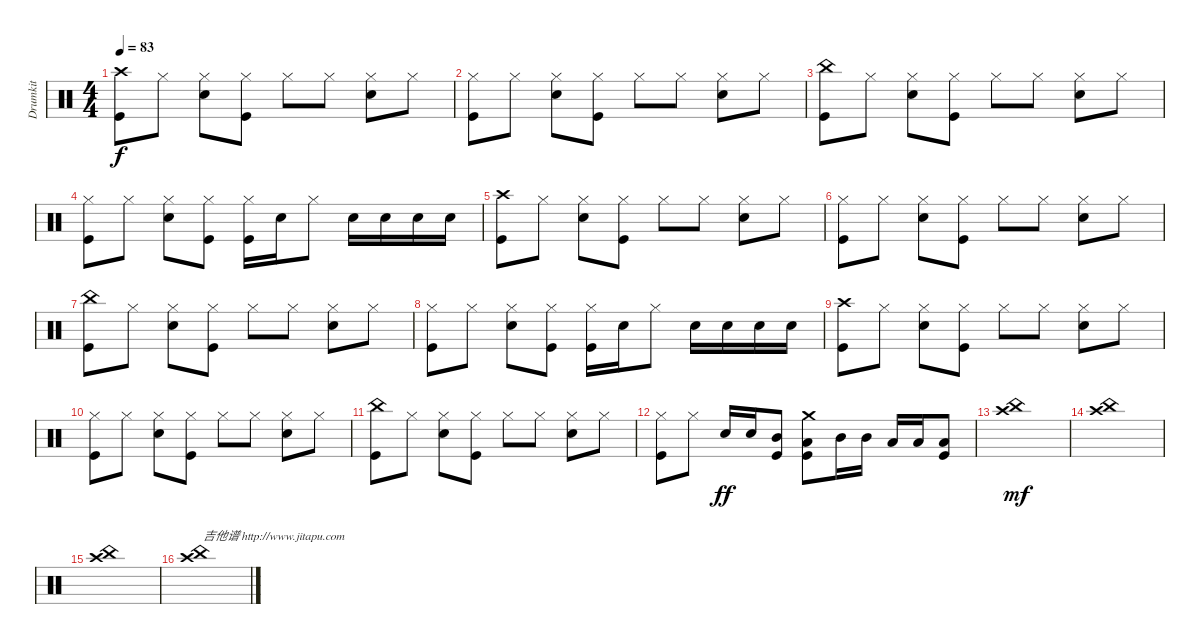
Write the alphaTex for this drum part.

\track ("Drumkit" "Drumkit") {instrument percussion}
\staff {score}
\articulation defaults
\ts (4 4)
\tempo 83
\clef neutral
\ks c
("Kick (hit)" "Crash high (hit)").8{dy f} "Hi-Hat (closed)".8 ("Snare (hit) 2" "Hi-Hat (closed)").8 ("Hi-Hat (closed)" "Kick (hit)").8 "Hi-Hat (closed)".8 "Hi-Hat (closed)".8 ("Snare (hit) 2" "Hi-Hat (closed)").8 "Hi-Hat (closed)".8 |
("Kick (hit)" "Hi-Hat (closed)").8 "Hi-Hat (closed)".8 ("Snare (hit) 2" "Hi-Hat (closed)").8 ("Hi-Hat (closed)" "Kick (hit)").8 "Hi-Hat (closed)".8 "Hi-Hat (closed)".8 ("Snare (hit) 2" "Hi-Hat (closed)").8 "Hi-Hat (closed)".8 |
("Kick (hit)" "China (hit)").8 "Hi-Hat (closed)".8 ("Snare (hit) 2" "Hi-Hat (closed)").8 ("Hi-Hat (closed)" "Kick (hit)").8 "Hi-Hat (closed)".8 "Hi-Hat (closed)".8 ("Snare (hit) 2" "Hi-Hat (closed)").8 "Hi-Hat (closed)".8 |
("Kick (hit)" "Hi-Hat (closed)").8 "Hi-Hat (closed)".8 ("Snare (hit) 2" "Hi-Hat (closed)").8 ("Hi-Hat (closed)" "Kick (hit)").8 ("Hi-Hat (closed)" "Kick (hit)").16 "Snare (hit) 2".16 "Hi-Hat (closed)".8 "Snare (hit) 2".16 "Snare (hit) 2".16 "Snare (hit) 2".16 "Snare (hit) 2".16 |
("Kick (hit)" "Crash high (hit)").8 "Hi-Hat (closed)".8 ("Snare (hit) 2" "Hi-Hat (closed)").8 ("Hi-Hat (closed)" "Kick (hit)").8 "Hi-Hat (closed)".8 "Hi-Hat (closed)".8 ("Snare (hit) 2" "Hi-Hat (closed)").8 "Hi-Hat (closed)".8 |
("Kick (hit)" "Hi-Hat (closed)").8 "Hi-Hat (closed)".8 ("Snare (hit) 2" "Hi-Hat (closed)").8 ("Hi-Hat (closed)" "Kick (hit)").8 "Hi-Hat (closed)".8 "Hi-Hat (closed)".8 ("Snare (hit) 2" "Hi-Hat (closed)").8 "Hi-Hat (closed)".8 |
("Kick (hit)" "China (hit)").8 "Hi-Hat (closed)".8 ("Snare (hit) 2" "Hi-Hat (closed)").8 ("Hi-Hat (closed)" "Kick (hit)").8 "Hi-Hat (closed)".8 "Hi-Hat (closed)".8 ("Snare (hit) 2" "Hi-Hat (closed)").8 "Hi-Hat (closed)".8 |
("Kick (hit)" "Hi-Hat (closed)").8 "Hi-Hat (closed)".8 ("Snare (hit) 2" "Hi-Hat (closed)").8 ("Hi-Hat (closed)" "Kick (hit)").8 ("Hi-Hat (closed)" "Kick (hit)").16 "Snare (hit) 2".16 "Hi-Hat (closed)".8 "Snare (hit) 2".16 "Snare (hit) 2".16 "Snare (hit) 2".16 "Snare (hit) 2".16 |
("Kick (hit)" "Crash high (hit)").8 "Hi-Hat (closed)".8 ("Snare (hit) 2" "Hi-Hat (closed)").8 ("Hi-Hat (closed)" "Kick (hit)").8 "Hi-Hat (closed)".8 "Hi-Hat (closed)".8 ("Snare (hit) 2" "Hi-Hat (closed)").8 "Hi-Hat (closed)".8 |
("Kick (hit)" "Hi-Hat (closed)").8 "Hi-Hat (closed)".8 ("Snare (hit) 2" "Hi-Hat (closed)").8 ("Hi-Hat (closed)" "Kick (hit)").8 "Hi-Hat (closed)".8 "Hi-Hat (closed)".8 ("Snare (hit) 2" "Hi-Hat (closed)").8 "Hi-Hat (closed)".8 |
("Kick (hit)" "China (hit)").8 "Hi-Hat (closed)".8 ("Snare (hit) 2" "Hi-Hat (closed)").8 ("Hi-Hat (closed)" "Kick (hit)").8 "Hi-Hat (closed)".8 "Hi-Hat (closed)".8 ("Snare (hit) 2" "Hi-Hat (closed)").8 "Hi-Hat (closed)".8 |
("Kick (hit)" "Hi-Hat (closed)").8 "Hi-Hat (closed)".8 "Snare (hit) 2".16{dy ff} "Snare (hit) 2".16 ("Kick (hit)" "Mid Tom (hit)").8 ("Low Tom (hit)" "Kick (hit)" "Crash medium (hit)").8 "Mid Tom (hit)".16 "Mid Tom (hit)".16 "Low Tom (hit)".16 "Low Tom (hit)".16 ("Low Floor Tom (hit)" "Kick (hit)").8 |
("China (hit)" "Crash high (hit)").1{dy mf} |
("China (hit)" "Crash high (hit)").1 |
("Crash high (hit)" "China (hit)").1 |
("Crash high (hit)" "China (hit)").1{txt "吉他谱 http://www.jitapu.com"}
